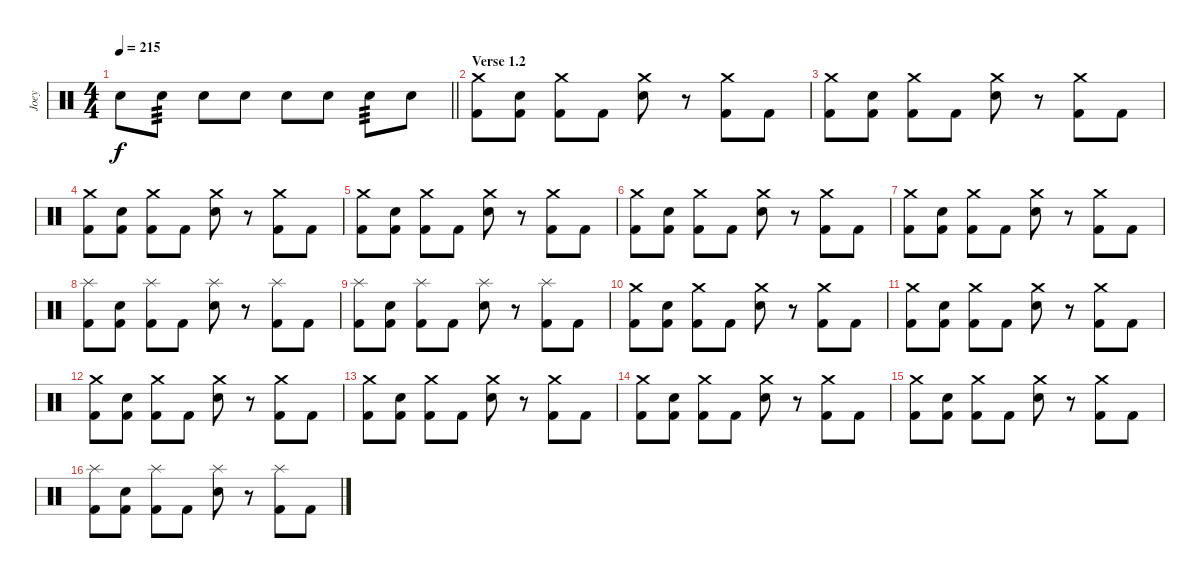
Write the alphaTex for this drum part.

\track ("Joey" "Joey") {instrument percussion}
\staff {score}
\articulation defaults
\ts (4 4)
\tempo 215
\clef neutral
\barLineRight lightlight
\ks c "Electric Snare (hit)".8{dy f} "Electric Snare (hit)".8{tp 3} "Electric Snare (hit)".8 "Electric Snare (hit)".8 "Electric Snare (hit)".8 "Electric Snare (hit)".8 "Electric Snare (hit)".8{tp 3} "Electric Snare (hit)".8
|
\section ("" "Verse 1.2")
("Crash medium (hit)" "Kick (hit) 2").8 ("Electric Snare (hit)" "Kick (hit) 2").8 ("Crash medium (hit)" "Kick (hit) 2").8 "Kick (hit) 2".8 ("Crash medium (hit)" "Electric Snare (hit)").8 r.8 ("Crash medium (hit)" "Kick (hit) 2").8 "Kick (hit) 2".8 |
("Crash medium (hit)" "Kick (hit) 2").8 ("Electric Snare (hit)" "Kick (hit) 2").8 ("Crash medium (hit)" "Kick (hit) 2").8 "Kick (hit) 2".8 ("Crash medium (hit)" "Electric Snare (hit)").8 r.8 ("Crash medium (hit)" "Kick (hit) 2").8 "Kick (hit) 2".8 |
("Crash medium (hit)" "Kick (hit) 2").8 ("Electric Snare (hit)" "Kick (hit) 2").8 ("Crash medium (hit)" "Kick (hit) 2").8 "Kick (hit) 2".8 ("Crash medium (hit)" "Electric Snare (hit)").8 r.8 ("Crash medium (hit)" "Kick (hit) 2").8 "Kick (hit) 2".8 |
("Crash medium (hit)" "Kick (hit) 2").8 ("Electric Snare (hit)" "Kick (hit) 2").8 ("Crash medium (hit)" "Kick (hit) 2").8 "Kick (hit) 2".8 ("Crash medium (hit)" "Electric Snare (hit)").8 r.8 ("Crash medium (hit)" "Kick (hit) 2").8 "Kick (hit) 2".8 |
("Crash medium (hit)" "Kick (hit) 2").8 ("Electric Snare (hit)" "Kick (hit) 2").8 ("Crash medium (hit)" "Kick (hit) 2").8 "Kick (hit) 2".8 ("Crash medium (hit)" "Electric Snare (hit)").8 r.8 ("Crash medium (hit)" "Kick (hit) 2").8 "Kick (hit) 2".8 |
("Crash medium (hit)" "Kick (hit) 2").8 ("Electric Snare (hit)" "Kick (hit) 2").8 ("Crash medium (hit)" "Kick (hit) 2").8 "Kick (hit) 2".8 ("Crash medium (hit)" "Electric Snare (hit)").8 r.8 ("Crash medium (hit)" "Kick (hit) 2").8 "Kick (hit) 2".8 |
("Splash (hit)" "Kick (hit) 2").8 ("Electric Snare (hit)" "Kick (hit) 2").8 ("Splash (hit)" "Kick (hit) 2").8 "Kick (hit) 2".8 ("Splash (hit)" "Electric Snare (hit)").8 r.8 ("Splash (hit)" "Kick (hit) 2").8 "Kick (hit) 2".8 |
("Splash (hit)" "Kick (hit) 2").8 ("Electric Snare (hit)" "Kick (hit) 2").8 ("Splash (hit)" "Kick (hit) 2").8 "Kick (hit) 2".8 ("Splash (hit)" "Electric Snare (hit)").8 r.8 ("Splash (hit)" "Kick (hit) 2").8 "Kick (hit) 2".8 |
("Crash medium (hit)" "Kick (hit) 2").8 ("Electric Snare (hit)" "Kick (hit) 2").8 ("Crash medium (hit)" "Kick (hit) 2").8 "Kick (hit) 2".8 ("Crash medium (hit)" "Electric Snare (hit)").8 r.8 ("Crash medium (hit)" "Kick (hit) 2").8 "Kick (hit) 2".8 |
("Crash medium (hit)" "Kick (hit) 2").8 ("Electric Snare (hit)" "Kick (hit) 2").8 ("Crash medium (hit)" "Kick (hit) 2").8 "Kick (hit) 2".8 ("Crash medium (hit)" "Electric Snare (hit)").8 r.8 ("Crash medium (hit)" "Kick (hit) 2").8 "Kick (hit) 2".8 |
("Crash medium (hit)" "Kick (hit) 2").8 ("Electric Snare (hit)" "Kick (hit) 2").8 ("Crash medium (hit)" "Kick (hit) 2").8 "Kick (hit) 2".8 ("Crash medium (hit)" "Electric Snare (hit)").8 r.8 ("Crash medium (hit)" "Kick (hit) 2").8 "Kick (hit) 2".8 |
("Crash medium (hit)" "Kick (hit) 2").8 ("Electric Snare (hit)" "Kick (hit) 2").8 ("Crash medium (hit)" "Kick (hit) 2").8 "Kick (hit) 2".8 ("Crash medium (hit)" "Electric Snare (hit)").8 r.8 ("Crash medium (hit)" "Kick (hit) 2").8 "Kick (hit) 2".8 |
("Crash medium (hit)" "Kick (hit) 2").8 ("Electric Snare (hit)" "Kick (hit) 2").8 ("Crash medium (hit)" "Kick (hit) 2").8 "Kick (hit) 2".8 ("Crash medium (hit)" "Electric Snare (hit)").8 r.8 ("Crash medium (hit)" "Kick (hit) 2").8 "Kick (hit) 2".8 |
("Crash medium (hit)" "Kick (hit) 2").8 ("Electric Snare (hit)" "Kick (hit) 2").8 ("Crash medium (hit)" "Kick (hit) 2").8 "Kick (hit) 2".8 ("Crash medium (hit)" "Electric Snare (hit)").8 r.8 ("Crash medium (hit)" "Kick (hit) 2").8 "Kick (hit) 2".8 |
("Splash (hit)" "Kick (hit) 2").8 ("Electric Snare (hit)" "Kick (hit) 2").8 ("Splash (hit)" "Kick (hit) 2").8 "Kick (hit) 2".8 ("Splash (hit)" "Electric Snare (hit)").8 r.8 ("Splash (hit)" "Kick (hit) 2").8 "Kick (hit) 2".8
